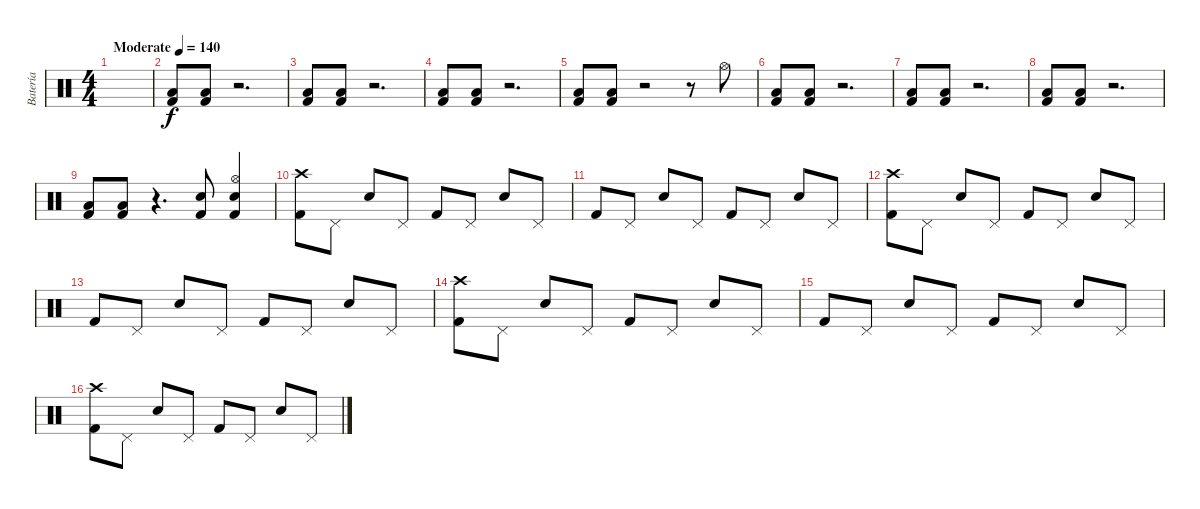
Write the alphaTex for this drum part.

\track ("Batería" "Batería") {instrument percussion}
\staff {score}
\articulation defaults
\ts (4 4)
\tempo (140 "Moderate")
\clef neutral
\ks c
|
("Low Tom (hit)" "Kick (hit) 2").8 ("Low Tom (hit)" "Kick (hit) 2").8 r.2{d} |
("Low Tom (hit)" "Kick (hit) 2").8 ("Low Tom (hit)" "Kick (hit) 2").8 r.2{d} |
("Low Tom (hit)" "Kick (hit) 2").8 ("Low Tom (hit)" "Kick (hit) 2").8 r.2{d} |
("Low Tom (hit)" "Kick (hit) 2").8 ("Low Tom (hit)" "Kick (hit) 2").8 r.2 r.8 "Hi-Hat (open)".8 |
("Low Tom (hit)" "Kick (hit) 2").8 ("Low Tom (hit)" "Kick (hit) 2").8 r.2{d} |
("Low Tom (hit)" "Kick (hit) 2").8 ("Low Tom (hit)" "Kick (hit) 2").8 r.2{d} |
("Low Tom (hit)" "Kick (hit) 2").8 ("Low Tom (hit)" "Kick (hit) 2").8 r.2{d} |
("Low Tom (hit)" "Kick (hit) 2").8 ("Low Tom (hit)" "Kick (hit) 2").8 r.4{d} ("Snare (hit) 2" "Kick (hit) 2").8 ("Hi-Hat (open)" "Snare (hit) 2" "Kick (hit) 2").4 |
("Crash high (hit)" "Kick (hit) 2").8 "Pedal Hi-Hat (hit)".8 "Snare (hit) 2".8 "Pedal Hi-Hat (hit)".8 "Kick (hit) 2".8 "Pedal Hi-Hat (hit)".8 "Snare (hit) 2".8 "Pedal Hi-Hat (hit)".8 |
"Kick (hit) 2".8 "Pedal Hi-Hat (hit)".8 "Snare (hit) 2".8 "Pedal Hi-Hat (hit)".8 "Kick (hit) 2".8 "Pedal Hi-Hat (hit)".8 "Snare (hit) 2".8 "Pedal Hi-Hat (hit)".8 |
("Crash high (hit)" "Kick (hit) 2").8 "Pedal Hi-Hat (hit)".8 "Snare (hit) 2".8 "Pedal Hi-Hat (hit)".8 "Kick (hit) 2".8 "Pedal Hi-Hat (hit)".8 "Snare (hit) 2".8 "Pedal Hi-Hat (hit)".8 |
"Kick (hit) 2".8 "Pedal Hi-Hat (hit)".8 "Snare (hit) 2".8 "Pedal Hi-Hat (hit)".8 "Kick (hit) 2".8 "Pedal Hi-Hat (hit)".8 "Snare (hit) 2".8 "Pedal Hi-Hat (hit)".8 |
("Crash high (hit)" "Kick (hit) 2").8 "Pedal Hi-Hat (hit)".8 "Snare (hit) 2".8 "Pedal Hi-Hat (hit)".8 "Kick (hit) 2".8 "Pedal Hi-Hat (hit)".8 "Snare (hit) 2".8 "Pedal Hi-Hat (hit)".8 |
"Kick (hit) 2".8 "Pedal Hi-Hat (hit)".8 "Snare (hit) 2".8 "Pedal Hi-Hat (hit)".8 "Kick (hit) 2".8 "Pedal Hi-Hat (hit)".8 "Snare (hit) 2".8 "Pedal Hi-Hat (hit)".8 |
("Crash high (hit)" "Kick (hit) 2").8 "Pedal Hi-Hat (hit)".8 "Snare (hit) 2".8 "Pedal Hi-Hat (hit)".8 "Kick (hit) 2".8 "Pedal Hi-Hat (hit)".8 "Snare (hit) 2".8 "Pedal Hi-Hat (hit)".8
